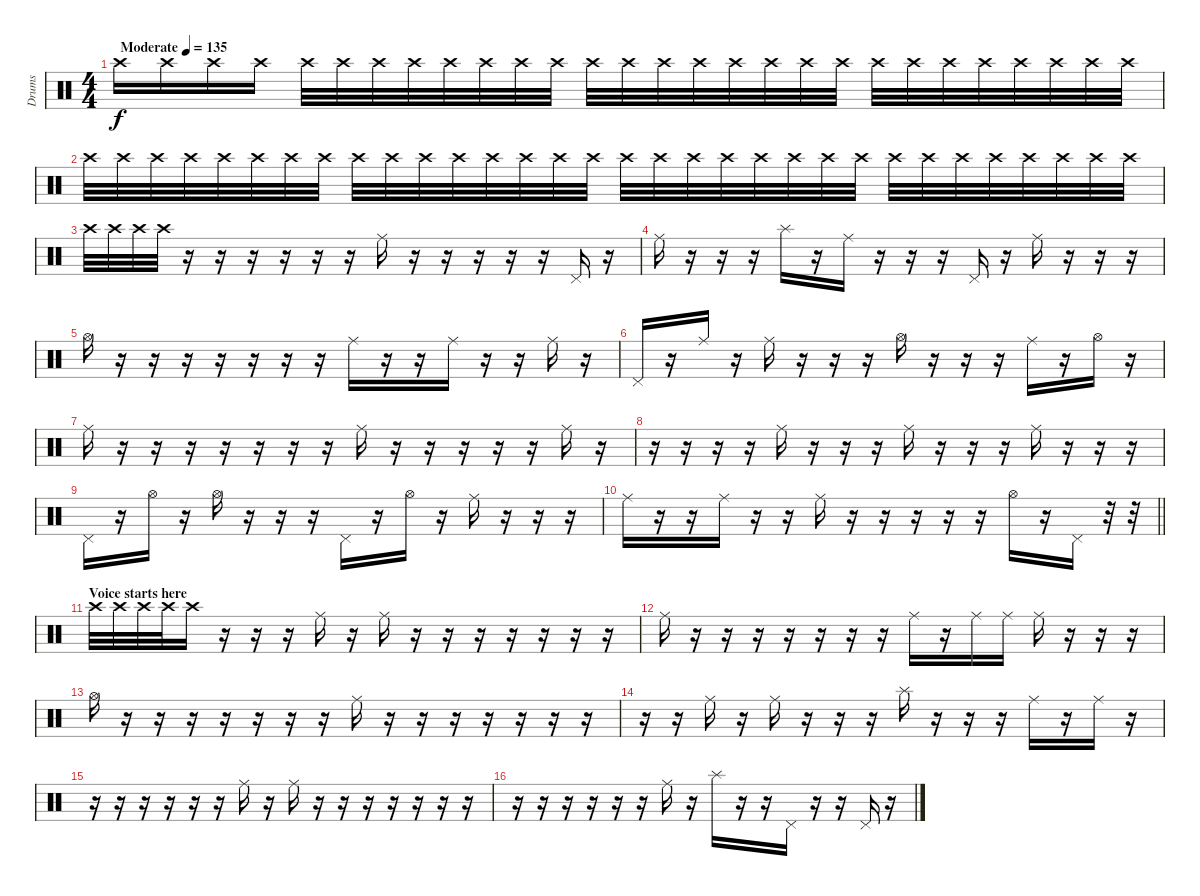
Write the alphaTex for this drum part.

\track ("Drums" "Drums") {instrument percussion}
\staff {score}
\articulation defaults
\ts (4 4)
\tempo (135 "Moderate")
\clef neutral
\ks c "Crash high (hit)".16{dy f volume 0} "Crash high (hit)".16 "Crash high (hit)".16 "Crash high (hit)".16 "Crash high (hit)".32{volume 16} "Crash high (hit)".32 "Crash high (hit)".32 "Crash high (hit)".32 "Crash high (hit)".32 "Crash high (hit)".32 "Crash high (hit)".32 "Crash high (hit)".32 "Crash high (hit)".32 "Crash high (hit)".32 "Crash high (hit)".32 "Crash high (hit)".32 "Crash high (hit)".32 "Crash high (hit)".32 "Crash high (hit)".32 "Crash high (hit)".32 "Crash high (hit)".32 "Crash high (hit)".32 "Crash high (hit)".32 "Crash high (hit)".32 "Crash high (hit)".32 "Crash high (hit)".32 "Crash high (hit)".32 "Crash high (hit)".32
|
"Crash high (hit)".32 "Crash high (hit)".32 "Crash high (hit)".32 "Crash high (hit)".32 "Crash high (hit)".32 "Crash high (hit)".32 "Crash high (hit)".32 "Crash high (hit)".32 "Crash high (hit)".32 "Crash high (hit)".32 "Crash high (hit)".32 "Crash high (hit)".32 "Crash high (hit)".32 "Crash high (hit)".32 "Crash high (hit)".32 "Crash high (hit)".32 "Crash high (hit)".32 "Crash high (hit)".32 "Crash high (hit)".32 "Crash high (hit)".32 "Crash high (hit)".32 "Crash high (hit)".32 "Crash high (hit)".32 "Crash high (hit)".32 "Crash high (hit)".32 "Crash high (hit)".32 "Crash high (hit)".32 "Crash high (hit)".32 "Crash high (hit)".32 "Crash high (hit)".32 "Crash high (hit)".32 "Crash high (hit)".32 |
"Crash high (hit)".32 "Crash high (hit)".32 "Crash high (hit)".32 "Crash high (hit)".32 r.16 r.16 r.16 r.16 r.16 r.16 "Ride (middle)".16 r.16 r.16 r.16 r.16 r.16 "Pedal Hi-Hat (hit)".16 r.16 |
"Ride (middle)".16 r.16 r.16 r.16 "Splash (hit)".16 r.16 "Ride (middle)".16 r.16 r.16 r.16 "Pedal Hi-Hat (hit)".16 r.16 "Ride (middle)".16 r.16 r.16 r.16 |
"Hi-Hat (open)".16 r.16 r.16 r.16 r.16 r.16 r.16 r.16 "Ride (middle)".16 r.16 r.16 "Ride (middle)".16 r.16 r.16 "Ride (middle)".16 r.16 |
"Pedal Hi-Hat (hit)".16 r.16 "Ride (middle)".16 r.16 "Ride (middle)".16 r.16 r.16 r.16 "Hi-Hat (open)".16 r.16 r.16 r.16 "Ride (middle)".16 r.16 "Hi-Hat (open)".16 r.16 |
"Ride (middle)".16 r.16 r.16 r.16 r.16 r.16 r.16 r.16 "Ride (middle)".16 r.16 r.16 r.16 r.16 r.16 "Ride (middle)".16 r.16 |
r.16 r.16 r.16 r.16 "Ride (middle)".16 r.16 r.16 r.16 "Ride (middle)".16 r.16 r.16 r.16 "Ride (middle)".16 r.16 r.16 r.16 |
"Pedal Hi-Hat (hit)".16 r.16 "Hi-Hat (open)".16 r.16 "Hi-Hat (open)".16 r.16 r.16 r.16 "Pedal Hi-Hat (hit)".16 r.16 "Hi-Hat (open)".16 r.16 "Ride (middle)".16 r.16 r.16 r.16 |
\barLineRight lightlight "Ride (middle)".16
r.16 r.16 "Ride (middle)".16 r.16 r.16 "Ride (middle)".16 r.16 r.16 r.16 r.16 r.16 "Hi-Hat (open)".16 r.16 "Pedal Hi-Hat (hit)".16 r.32 r.32 |
\section ("" "Voice starts here")
"Crash high (hit)".32 "Crash high (hit)".32 "Crash high (hit)".32 "Crash high (hit)".32 "Crash high (hit)".16 r.16 r.16 r.16 "Ride (middle)".16 r.16 "Ride (middle)".16 r.16 r.16 r.16 r.16 r.16 r.16 r.16 |
"Ride (middle)".16 r.16 r.16 r.16 r.16 r.16 r.16 r.16 "Ride (middle)".16 r.16 "Ride (middle)".16 "Ride (middle)".16 "Ride (middle)".16 r.16 r.16 r.16 |
"Hi-Hat (open)".16 r.16 r.16 r.16 r.16 r.16 r.16 r.16 "Ride (middle)".16 r.16 r.16 r.16 r.16 r.16 r.16 r.16 |
r.16 r.16 "Ride (middle)".16 r.16 "Ride (middle)".16 r.16 r.16 r.16 "Splash (hit)".16 r.16 r.16 r.16 "Ride (middle)".16 r.16 "Ride (middle)".16 r.16 |
r.16 r.16 r.16 r.16 r.16 r.16 "Ride (middle)".16 r.16 "Ride (middle)".16 r.16 r.16 r.16 r.16 r.16 r.16 r.16 |
r.16 r.16 r.16 r.16 r.16 r.16 "Ride (middle)".16 r.16 "Splash (hit)".16 r.16 r.16 "Pedal Hi-Hat (hit)".16 r.16 r.16 "Pedal Hi-Hat (hit)".16 r.16
